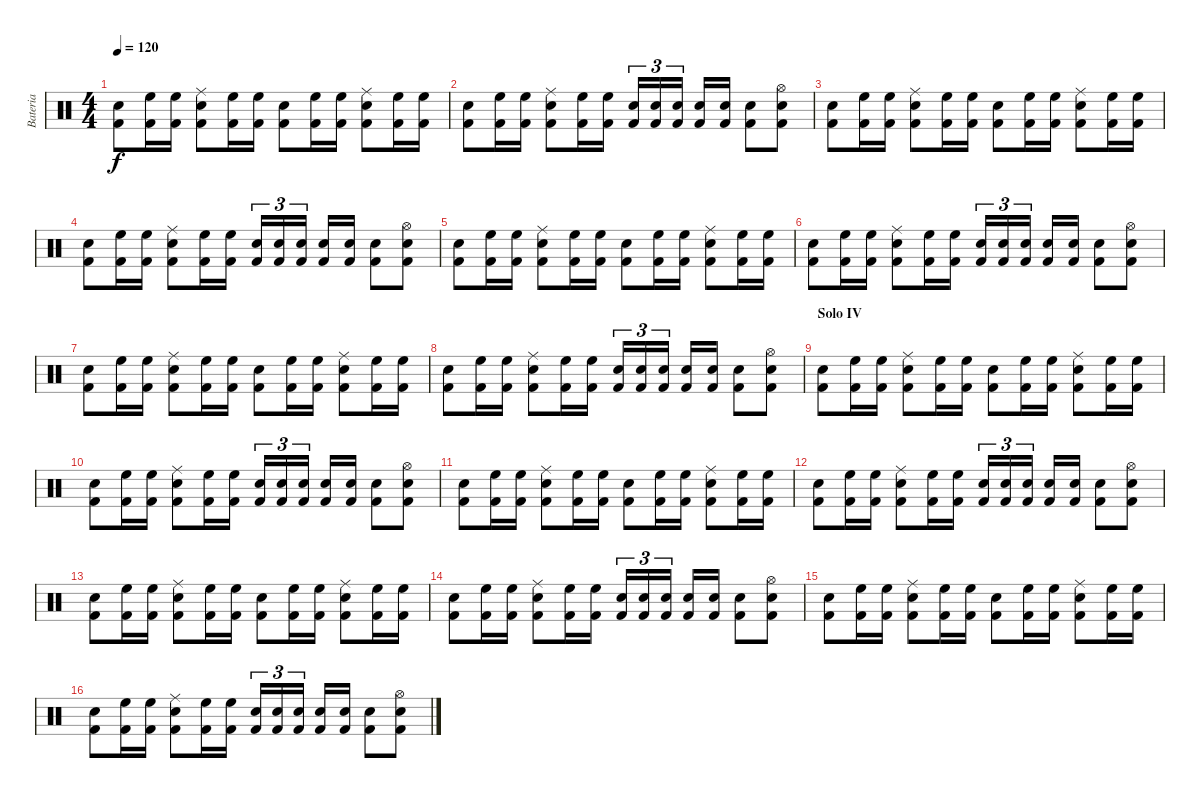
\track ("Bateria" "Bateria") {instrument percussion}
\staff {score}
\articulation defaults
\ts (4 4)
\tempo 120
\clef neutral
\ks c
("Snare (hit) 2" "Kick (hit) 2").8{dy f} ("High Floor Tom (hit)" "Kick (hit) 2").16 ("High Floor Tom (hit)" "Kick (hit) 2").16 ("Ride (middle)" "Snare (hit) 2" "Kick (hit) 2").8 ("High Floor Tom (hit)" "Kick (hit) 2").16 ("High Floor Tom (hit)" "Kick (hit) 2").16 ("Snare (hit) 2" "Kick (hit) 2").8 ("High Floor Tom (hit)" "Kick (hit) 2").16 ("High Floor Tom (hit)" "Kick (hit) 2").16 ("Ride (middle)" "Snare (hit) 2" "Kick (hit) 2").8 ("High Floor Tom (hit)" "Kick (hit) 2").16 ("High Floor Tom (hit)" "Kick (hit) 2").16 |
("Snare (hit) 2" "Kick (hit) 2").8 ("High Floor Tom (hit)" "Kick (hit) 2").16 ("High Floor Tom (hit)" "Kick (hit) 2").16 ("Ride (middle)" "Snare (hit) 2" "Kick (hit) 2").8 ("High Floor Tom (hit)" "Kick (hit) 2").16 ("High Floor Tom (hit)" "Kick (hit) 2").16 ("Snare (hit) 2" "Kick (hit) 2").16{tu (3 2)} ("Snare (hit) 2" "Kick (hit) 2").16{tu (3 2)} ("Snare (hit) 2" "Kick (hit) 2").16{tu (3 2)} ("Snare (hit) 2" "Kick (hit) 2").16 ("Snare (hit) 2" "Kick (hit) 2").16 ("Snare (hit) 2" "Kick (hit) 2").8 ("Hi-Hat (open)" "Snare (hit) 2" "Kick (hit) 2").8 |
("Snare (hit) 2" "Kick (hit) 2").8 ("High Floor Tom (hit)" "Kick (hit) 2").16 ("High Floor Tom (hit)" "Kick (hit) 2").16 ("Ride (middle)" "Snare (hit) 2" "Kick (hit) 2").8 ("High Floor Tom (hit)" "Kick (hit) 2").16 ("High Floor Tom (hit)" "Kick (hit) 2").16 ("Snare (hit) 2" "Kick (hit) 2").8 ("High Floor Tom (hit)" "Kick (hit) 2").16 ("High Floor Tom (hit)" "Kick (hit) 2").16 ("Ride (middle)" "Snare (hit) 2" "Kick (hit) 2").8 ("High Floor Tom (hit)" "Kick (hit) 2").16 ("High Floor Tom (hit)" "Kick (hit) 2").16 |
("Snare (hit) 2" "Kick (hit) 2").8 ("High Floor Tom (hit)" "Kick (hit) 2").16 ("High Floor Tom (hit)" "Kick (hit) 2").16 ("Ride (middle)" "Snare (hit) 2" "Kick (hit) 2").8 ("High Floor Tom (hit)" "Kick (hit) 2").16 ("High Floor Tom (hit)" "Kick (hit) 2").16 ("Snare (hit) 2" "Kick (hit) 2").16{tu (3 2)} ("Snare (hit) 2" "Kick (hit) 2").16{tu (3 2)} ("Snare (hit) 2" "Kick (hit) 2").16{tu (3 2)} ("Snare (hit) 2" "Kick (hit) 2").16 ("Snare (hit) 2" "Kick (hit) 2").16 ("Snare (hit) 2" "Kick (hit) 2").8 ("Hi-Hat (open)" "Snare (hit) 2" "Kick (hit) 2").8 |
("Snare (hit) 2" "Kick (hit) 2").8 ("High Floor Tom (hit)" "Kick (hit) 2").16 ("High Floor Tom (hit)" "Kick (hit) 2").16 ("Ride (middle)" "Snare (hit) 2" "Kick (hit) 2").8 ("High Floor Tom (hit)" "Kick (hit) 2").16 ("High Floor Tom (hit)" "Kick (hit) 2").16 ("Snare (hit) 2" "Kick (hit) 2").8 ("High Floor Tom (hit)" "Kick (hit) 2").16 ("High Floor Tom (hit)" "Kick (hit) 2").16 ("Ride (middle)" "Snare (hit) 2" "Kick (hit) 2").8 ("High Floor Tom (hit)" "Kick (hit) 2").16 ("High Floor Tom (hit)" "Kick (hit) 2").16 |
("Snare (hit) 2" "Kick (hit) 2").8 ("High Floor Tom (hit)" "Kick (hit) 2").16 ("High Floor Tom (hit)" "Kick (hit) 2").16 ("Ride (middle)" "Snare (hit) 2" "Kick (hit) 2").8 ("High Floor Tom (hit)" "Kick (hit) 2").16 ("High Floor Tom (hit)" "Kick (hit) 2").16 ("Snare (hit) 2" "Kick (hit) 2").16{tu (3 2)} ("Snare (hit) 2" "Kick (hit) 2").16{tu (3 2)} ("Snare (hit) 2" "Kick (hit) 2").16{tu (3 2)} ("Snare (hit) 2" "Kick (hit) 2").16 ("Snare (hit) 2" "Kick (hit) 2").16 ("Snare (hit) 2" "Kick (hit) 2").8 ("Hi-Hat (open)" "Snare (hit) 2" "Kick (hit) 2").8 |
("Snare (hit) 2" "Kick (hit) 2").8 ("High Floor Tom (hit)" "Kick (hit) 2").16 ("High Floor Tom (hit)" "Kick (hit) 2").16 ("Ride (middle)" "Snare (hit) 2" "Kick (hit) 2").8 ("High Floor Tom (hit)" "Kick (hit) 2").16 ("High Floor Tom (hit)" "Kick (hit) 2").16 ("Snare (hit) 2" "Kick (hit) 2").8 ("High Floor Tom (hit)" "Kick (hit) 2").16 ("High Floor Tom (hit)" "Kick (hit) 2").16 ("Ride (middle)" "Snare (hit) 2" "Kick (hit) 2").8 ("High Floor Tom (hit)" "Kick (hit) 2").16 ("High Floor Tom (hit)" "Kick (hit) 2").16 |
("Snare (hit) 2" "Kick (hit) 2").8 ("High Floor Tom (hit)" "Kick (hit) 2").16 ("High Floor Tom (hit)" "Kick (hit) 2").16 ("Ride (middle)" "Snare (hit) 2" "Kick (hit) 2").8 ("High Floor Tom (hit)" "Kick (hit) 2").16 ("High Floor Tom (hit)" "Kick (hit) 2").16 ("Snare (hit) 2" "Kick (hit) 2").16{tu (3 2)} ("Snare (hit) 2" "Kick (hit) 2").16{tu (3 2)} ("Snare (hit) 2" "Kick (hit) 2").16{tu (3 2)} ("Snare (hit) 2" "Kick (hit) 2").16 ("Snare (hit) 2" "Kick (hit) 2").16 ("Snare (hit) 2" "Kick (hit) 2").8 ("Hi-Hat (open)" "Snare (hit) 2" "Kick (hit) 2").8 |
\section ("" "Solo IV")
("Snare (hit) 2" "Kick (hit) 2").8 ("High Floor Tom (hit)" "Kick (hit) 2").16 ("High Floor Tom (hit)" "Kick (hit) 2").16 ("Ride (middle)" "Snare (hit) 2" "Kick (hit) 2").8 ("High Floor Tom (hit)" "Kick (hit) 2").16 ("High Floor Tom (hit)" "Kick (hit) 2").16 ("Snare (hit) 2" "Kick (hit) 2").8 ("High Floor Tom (hit)" "Kick (hit) 2").16 ("High Floor Tom (hit)" "Kick (hit) 2").16 ("Ride (middle)" "Snare (hit) 2" "Kick (hit) 2").8 ("High Floor Tom (hit)" "Kick (hit) 2").16 ("High Floor Tom (hit)" "Kick (hit) 2").16 |
("Snare (hit) 2" "Kick (hit) 2").8 ("High Floor Tom (hit)" "Kick (hit) 2").16 ("High Floor Tom (hit)" "Kick (hit) 2").16 ("Ride (middle)" "Snare (hit) 2" "Kick (hit) 2").8 ("High Floor Tom (hit)" "Kick (hit) 2").16 ("High Floor Tom (hit)" "Kick (hit) 2").16 ("Snare (hit) 2" "Kick (hit) 2").16{tu (3 2)} ("Snare (hit) 2" "Kick (hit) 2").16{tu (3 2)} ("Snare (hit) 2" "Kick (hit) 2").16{tu (3 2)} ("Snare (hit) 2" "Kick (hit) 2").16 ("Snare (hit) 2" "Kick (hit) 2").16 ("Snare (hit) 2" "Kick (hit) 2").8 ("Hi-Hat (open)" "Snare (hit) 2" "Kick (hit) 2").8 |
("Snare (hit) 2" "Kick (hit) 2").8 ("High Floor Tom (hit)" "Kick (hit) 2").16 ("High Floor Tom (hit)" "Kick (hit) 2").16 ("Ride (middle)" "Snare (hit) 2" "Kick (hit) 2").8 ("High Floor Tom (hit)" "Kick (hit) 2").16 ("High Floor Tom (hit)" "Kick (hit) 2").16 ("Snare (hit) 2" "Kick (hit) 2").8 ("High Floor Tom (hit)" "Kick (hit) 2").16 ("High Floor Tom (hit)" "Kick (hit) 2").16 ("Ride (middle)" "Snare (hit) 2" "Kick (hit) 2").8 ("High Floor Tom (hit)" "Kick (hit) 2").16 ("High Floor Tom (hit)" "Kick (hit) 2").16 |
("Snare (hit) 2" "Kick (hit) 2").8 ("High Floor Tom (hit)" "Kick (hit) 2").16 ("High Floor Tom (hit)" "Kick (hit) 2").16 ("Ride (middle)" "Snare (hit) 2" "Kick (hit) 2").8 ("High Floor Tom (hit)" "Kick (hit) 2").16 ("High Floor Tom (hit)" "Kick (hit) 2").16 ("Snare (hit) 2" "Kick (hit) 2").16{tu (3 2)} ("Snare (hit) 2" "Kick (hit) 2").16{tu (3 2)} ("Snare (hit) 2" "Kick (hit) 2").16{tu (3 2)} ("Snare (hit) 2" "Kick (hit) 2").16 ("Snare (hit) 2" "Kick (hit) 2").16 ("Snare (hit) 2" "Kick (hit) 2").8 ("Hi-Hat (open)" "Snare (hit) 2" "Kick (hit) 2").8 |
("Snare (hit) 2" "Kick (hit) 2").8 ("High Floor Tom (hit)" "Kick (hit) 2").16 ("High Floor Tom (hit)" "Kick (hit) 2").16 ("Ride (middle)" "Snare (hit) 2" "Kick (hit) 2").8 ("High Floor Tom (hit)" "Kick (hit) 2").16 ("High Floor Tom (hit)" "Kick (hit) 2").16 ("Snare (hit) 2" "Kick (hit) 2").8 ("High Floor Tom (hit)" "Kick (hit) 2").16 ("High Floor Tom (hit)" "Kick (hit) 2").16 ("Ride (middle)" "Snare (hit) 2" "Kick (hit) 2").8 ("High Floor Tom (hit)" "Kick (hit) 2").16 ("High Floor Tom (hit)" "Kick (hit) 2").16 |
("Snare (hit) 2" "Kick (hit) 2").8 ("High Floor Tom (hit)" "Kick (hit) 2").16 ("High Floor Tom (hit)" "Kick (hit) 2").16 ("Ride (middle)" "Snare (hit) 2" "Kick (hit) 2").8 ("High Floor Tom (hit)" "Kick (hit) 2").16 ("High Floor Tom (hit)" "Kick (hit) 2").16 ("Snare (hit) 2" "Kick (hit) 2").16{tu (3 2)} ("Snare (hit) 2" "Kick (hit) 2").16{tu (3 2)} ("Snare (hit) 2" "Kick (hit) 2").16{tu (3 2)} ("Snare (hit) 2" "Kick (hit) 2").16 ("Snare (hit) 2" "Kick (hit) 2").16 ("Snare (hit) 2" "Kick (hit) 2").8 ("Hi-Hat (open)" "Snare (hit) 2" "Kick (hit) 2").8 |
("Snare (hit) 2" "Kick (hit) 2").8 ("High Floor Tom (hit)" "Kick (hit) 2").16 ("High Floor Tom (hit)" "Kick (hit) 2").16 ("Ride (middle)" "Snare (hit) 2" "Kick (hit) 2").8 ("High Floor Tom (hit)" "Kick (hit) 2").16 ("High Floor Tom (hit)" "Kick (hit) 2").16 ("Snare (hit) 2" "Kick (hit) 2").8 ("High Floor Tom (hit)" "Kick (hit) 2").16 ("High Floor Tom (hit)" "Kick (hit) 2").16 ("Ride (middle)" "Snare (hit) 2" "Kick (hit) 2").8 ("High Floor Tom (hit)" "Kick (hit) 2").16 ("High Floor Tom (hit)" "Kick (hit) 2").16 |
("Snare (hit) 2" "Kick (hit) 2").8 ("High Floor Tom (hit)" "Kick (hit) 2").16 ("High Floor Tom (hit)" "Kick (hit) 2").16 ("Ride (middle)" "Snare (hit) 2" "Kick (hit) 2").8 ("High Floor Tom (hit)" "Kick (hit) 2").16 ("High Floor Tom (hit)" "Kick (hit) 2").16 ("Snare (hit) 2" "Kick (hit) 2").16{tu (3 2)} ("Snare (hit) 2" "Kick (hit) 2").16{tu (3 2)} ("Snare (hit) 2" "Kick (hit) 2").16{tu (3 2)} ("Snare (hit) 2" "Kick (hit) 2").16 ("Snare (hit) 2" "Kick (hit) 2").16 ("Snare (hit) 2" "Kick (hit) 2").8 ("Hi-Hat (open)" "Snare (hit) 2" "Kick (hit) 2").8
